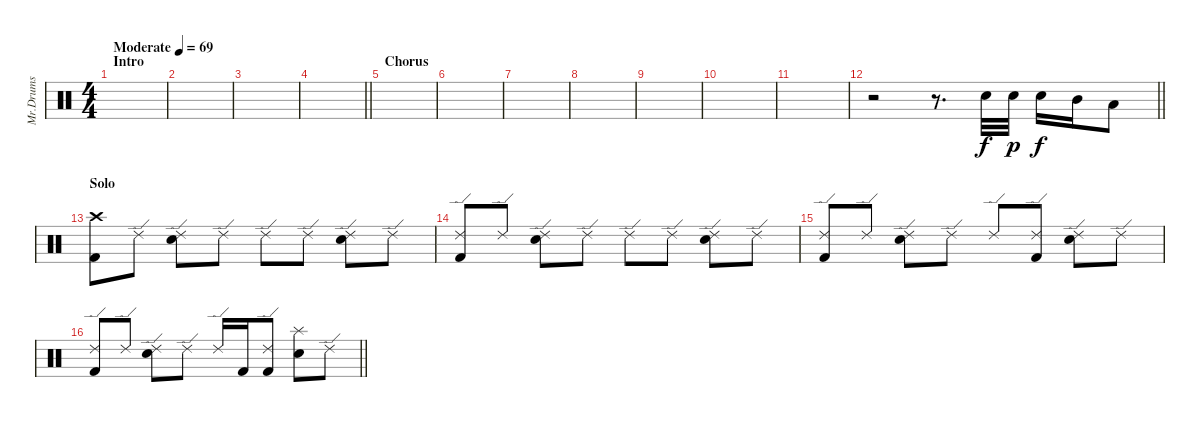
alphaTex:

\track ("Mr.Drums" "Mr.Drums") {instrument percussion}
\staff {score}
\articulation defaults
\ts (4 4)
\section ("" "Intro")
\tempo (69 "Moderate")
\clef neutral
\ks c
|
|
|
\barLineRight lightlight
|
\section ("" "Chorus")
|
|
|
|
|
|
|
\barLineRight lightlight
r.2 r.8{d} "Electric Snare (hit)".32 "Electric Snare (hit)".32{dy p} "Electric Snare (hit)".16{dy f} "Mid Tom (hit)".16 "Low Tom (hit)".8 |
\section ("" "Solo")
("Crash high (hit)" "Kick (hit) 2").8 "Ride (edge) 2".8 ("Ride (edge) 2" "Electric Snare (hit)").8 "Ride (edge) 2".8 "Ride (edge) 2".8 "Ride (edge) 2".8 ("Ride (edge) 2" "Electric Snare (hit)").8 "Ride (edge) 2".8 |
("Ride (edge) 2" "Kick (hit) 2").8 "Ride (edge) 2".8 ("Ride (edge) 2" "Electric Snare (hit)").8 "Ride (edge) 2".8 "Ride (edge) 2".8 "Ride (edge) 2".8 ("Ride (edge) 2" "Electric Snare (hit)").8 "Ride (edge) 2".8 |
("Ride (edge) 2" "Kick (hit) 2").8 "Ride (edge) 2".8 ("Ride (edge) 2" "Electric Snare (hit)").8 "Ride (edge) 2".8 "Ride (edge) 2".8 ("Ride (edge) 2" "Kick (hit) 2").8 ("Ride (edge) 2" "Electric Snare (hit)").8 "Ride (edge) 2".8 |
\barLineRight lightlight
("Ride (edge) 2" "Kick (hit) 2").8 "Ride (edge) 2".8 ("Ride (edge) 2" "Electric Snare (hit)").8 "Ride (edge) 2".8 "Ride (edge) 2".16 "Kick (hit) 2".16 ("Ride (edge) 2" "Kick (hit) 2").8 ("Splash (hit)" "Electric Snare (hit)").8 "Ride (edge) 2".8
